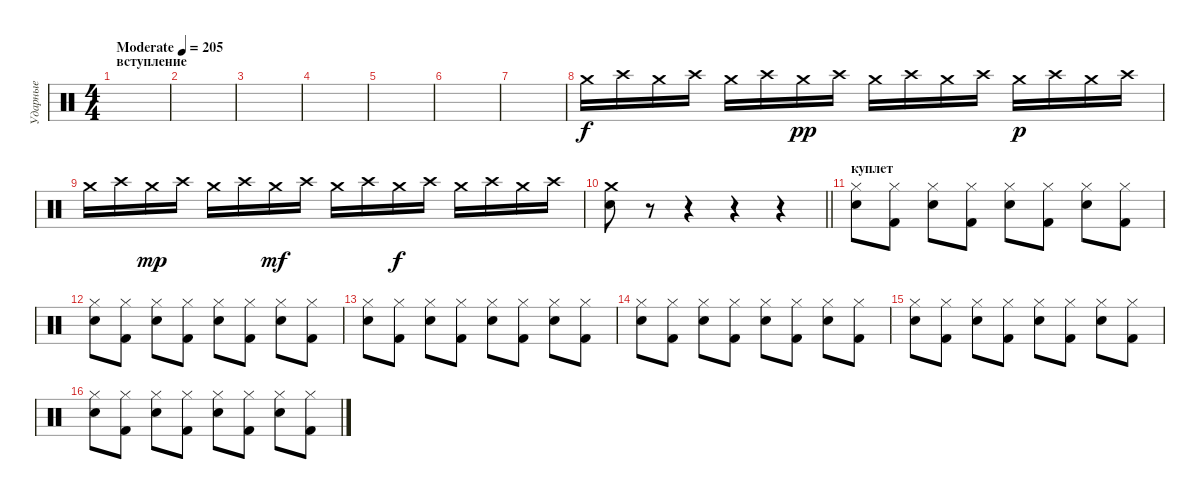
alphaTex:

\track ("Ударные" "Ударные") {instrument percussion}
\staff {score}
\articulation defaults
\ts (4 4)
\section ("" "вступление")
\tempo (205 "Moderate")
\clef neutral
\ks c
|
|
|
|
|
|
|
"Crash medium (hit)".16 "Crash high (hit)".16 "Crash medium (hit)".16 "Crash high (hit)".16 "Crash medium (hit)".16 "Crash high (hit)".16 "Crash medium (hit)".16{dy pp} "Crash high (hit)".16 "Crash medium (hit)".16 "Crash high (hit)".16 "Crash medium (hit)".16 "Crash high (hit)".16 "Crash medium (hit)".16{dy p} "Crash high (hit)".16 "Crash medium (hit)".16 "Crash high (hit)".16 |
"Crash medium (hit)".16 "Crash high (hit)".16 "Crash medium (hit)".16{dy mp} "Crash high (hit)".16 "Crash medium (hit)".16 "Crash high (hit)".16 "Crash medium (hit)".16{dy mf} "Crash high (hit)".16 "Crash medium (hit)".16 "Crash high (hit)".16 "Crash medium (hit)".16{dy f} "Crash high (hit)".16 "Crash medium (hit)".16 "Crash high (hit)".16 "Crash medium (hit)".16 "Crash high (hit)".16 |
\barLineRight lightlight
("Electric Snare (hit)" "Crash medium (hit)").8 r.8 r.4 r.4 r.4 |
\section ("" "куплет")
("Electric Snare (hit)" "Hi-Hat (closed)").8 ("Kick (hit) 2" "Hi-Hat (closed)").8 ("Electric Snare (hit)" "Hi-Hat (closed)").8 ("Kick (hit) 2" "Hi-Hat (closed)").8 ("Electric Snare (hit)" "Hi-Hat (closed)").8 ("Kick (hit) 2" "Hi-Hat (closed)").8 ("Electric Snare (hit)" "Hi-Hat (closed)").8 ("Kick (hit) 2" "Hi-Hat (closed)").8 |
("Electric Snare (hit)" "Hi-Hat (closed)").8 ("Kick (hit) 2" "Hi-Hat (closed)").8 ("Electric Snare (hit)" "Hi-Hat (closed)").8 ("Kick (hit) 2" "Hi-Hat (closed)").8 ("Electric Snare (hit)" "Hi-Hat (closed)").8 ("Kick (hit) 2" "Hi-Hat (closed)").8 ("Electric Snare (hit)" "Hi-Hat (closed)").8 ("Kick (hit) 2" "Hi-Hat (closed)").8 |
("Electric Snare (hit)" "Hi-Hat (closed)").8 ("Kick (hit) 2" "Hi-Hat (closed)").8 ("Electric Snare (hit)" "Hi-Hat (closed)").8 ("Kick (hit) 2" "Hi-Hat (closed)").8 ("Electric Snare (hit)" "Hi-Hat (closed)").8 ("Kick (hit) 2" "Hi-Hat (closed)").8 ("Electric Snare (hit)" "Hi-Hat (closed)").8 ("Kick (hit) 2" "Hi-Hat (closed)").8 |
("Electric Snare (hit)" "Hi-Hat (closed)").8 ("Kick (hit) 2" "Hi-Hat (closed)").8 ("Electric Snare (hit)" "Hi-Hat (closed)").8 ("Kick (hit) 2" "Hi-Hat (closed)").8 ("Electric Snare (hit)" "Hi-Hat (closed)").8 ("Kick (hit) 2" "Hi-Hat (closed)").8 ("Electric Snare (hit)" "Hi-Hat (closed)").8 ("Kick (hit) 2" "Hi-Hat (closed)").8 |
("Electric Snare (hit)" "Hi-Hat (closed)").8 ("Kick (hit) 2" "Hi-Hat (closed)").8 ("Electric Snare (hit)" "Hi-Hat (closed)").8 ("Kick (hit) 2" "Hi-Hat (closed)").8 ("Electric Snare (hit)" "Hi-Hat (closed)").8 ("Kick (hit) 2" "Hi-Hat (closed)").8 ("Electric Snare (hit)" "Hi-Hat (closed)").8 ("Kick (hit) 2" "Hi-Hat (closed)").8 |
("Electric Snare (hit)" "Hi-Hat (closed)").8 ("Kick (hit) 2" "Hi-Hat (closed)").8 ("Electric Snare (hit)" "Hi-Hat (closed)").8 ("Kick (hit) 2" "Hi-Hat (closed)").8 ("Electric Snare (hit)" "Hi-Hat (closed)").8 ("Kick (hit) 2" "Hi-Hat (closed)").8 ("Electric Snare (hit)" "Hi-Hat (closed)").8 ("Kick (hit) 2" "Hi-Hat (closed)").8
